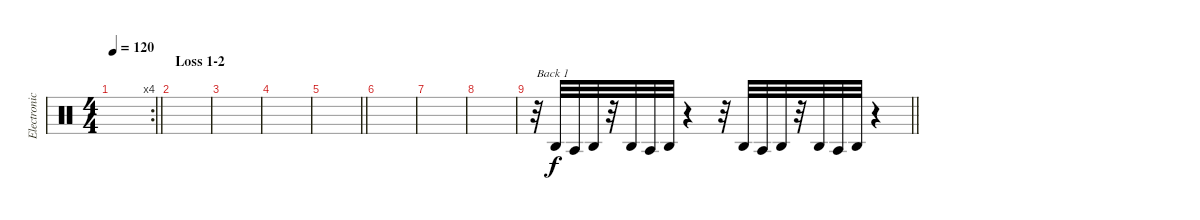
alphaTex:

\track ("Electronic Drums" "Electronic") {instrument percussion}
\staff {score}
\articulation defaults
\rc 4
\ts (4 4)
\tempo 120
\clef neutral
\barLineRight lightlight
\ks c
|
\section ("" "Loss 1-2")
|
|
|
\barLineRight lightlight
|
|
|
|
\barLineRight lightlight
r.32{txt "Back 1"} "Agogo high (hit)".32 "Agogo tow (hit)".32 "Agogo high (hit)".32 r.32 "Agogo high (hit)".32 "Agogo tow (hit)".32 "Agogo high (hit)".32 r.4 r.32 "Agogo high (hit)".32 "Agogo tow (hit)".32 "Agogo high (hit)".32 r.32 "Agogo high (hit)".32 "Agogo tow (hit)".32 "Agogo high (hit)".32 r.4
